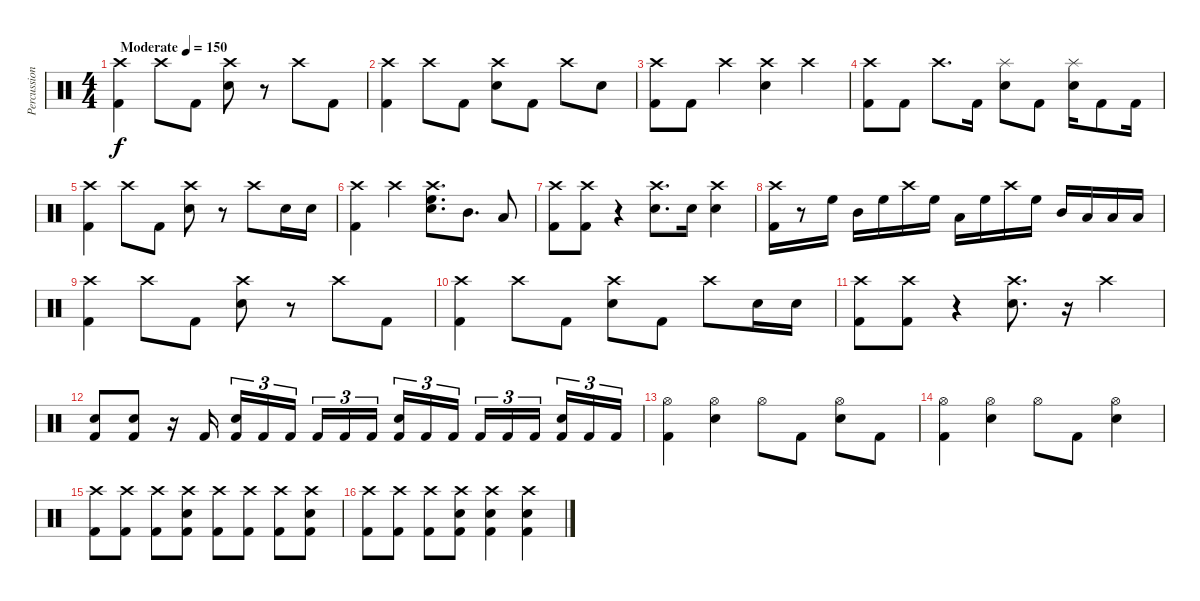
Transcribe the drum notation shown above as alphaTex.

\track ("Percussion" "Percussion") {instrument percussion}
\staff {score}
\articulation defaults
\ts (4 4)
\tempo (150 "Moderate")
\clef neutral
\ks c
("Crash high (hit)" "Kick (hit) 2").4{dy f} "Crash high (hit)".8 "Kick (hit) 2".8 ("Crash high (hit)" "Snare (hit) 2").8 r.8 "Crash high (hit)".8 "Kick (hit) 2".8 |
("Crash high (hit)" "Kick (hit) 2").4 "Crash high (hit)".8 "Kick (hit) 2".8 ("Crash high (hit)" "Snare (hit) 2").8 "Kick (hit) 2".8 "Crash high (hit)".8 "Snare (hit) 2".8 |
("Crash high (hit)" "Kick (hit) 2").8 "Kick (hit) 2".8 "Crash high (hit)".4 ("Crash high (hit)" "Snare (hit) 2").4 "Crash high (hit)".4 |
("Crash high (hit)" "Kick (hit) 2").8 "Kick (hit) 2".8 "Crash high (hit)".8{d} "Kick (hit) 2".16 ("Splash (hit)" "Snare (hit) 2").8 "Kick (hit) 2".8 ("Splash (hit)" "Snare (hit) 2").16 "Kick (hit) 2".8 "Kick (hit) 2".16 |
("Crash high (hit)" "Kick (hit) 2").4 "Crash high (hit)".8 "Kick (hit) 2".8 ("Crash high (hit)" "Snare (hit) 2").8 r.8 "Crash high (hit)".8 "Snare (hit) 2".16 "Snare (hit) 2".16 |
("Crash high (hit)" "Kick (hit) 2").4 "Crash high (hit)".4 ("Crash high (hit)" "High Floor Tom (hit)" "Snare (hit) 2").8{d} "Mid Tom (hit)".8{d} "Low Tom (hit)".8 |
("Crash high (hit)" "Kick (hit) 2").8 ("Crash high (hit)" "Kick (hit) 2").8 r.4 ("Crash high (hit)" "Snare (hit) 2").8{d} "Snare (hit) 2".16 ("Crash high (hit)" "Snare (hit) 2").4 |
("Crash high (hit)" "Kick (hit) 2").16 r.8 "High Floor Tom (hit)".16 "Mid Tom (hit)".16 "High Floor Tom (hit)".16 "Crash high (hit)".16 "High Floor Tom (hit)".16 "Low Tom (hit)".16 "High Floor Tom (hit)".16 "Crash high (hit)".16 "High Floor Tom (hit)".16 "Mid Tom (hit)".16 "Low Tom (hit)".16 "Low Tom (hit)".16 "Low Tom (hit)".16 |
("Crash high (hit)" "Kick (hit) 2").4 "Crash high (hit)".8 "Kick (hit) 2".8 ("Crash high (hit)" "Snare (hit) 2").8 r.8 "Crash high (hit)".8 "Kick (hit) 2".8 |
("Crash high (hit)" "Kick (hit) 2").4 "Crash high (hit)".8 "Kick (hit) 2".8 ("Crash high (hit)" "Snare (hit) 2").8 "Kick (hit) 2".8 "Crash high (hit)".8 "Snare (hit) 2".16 "Snare (hit) 2".16 |
("Crash high (hit)" "Kick (hit) 2").8 ("Crash high (hit)" "Kick (hit) 2").8 r.4 ("Crash high (hit)" "Snare (hit) 2").8{d} r.16 "Crash high (hit)".4 |
("Snare (hit) 2" "Kick (hit) 2").8 ("Snare (hit) 2" "Kick (hit) 2").8 r.16 "Kick (hit) 2".16{beam splitsecondary} ("Snare (hit) 2" "Kick (hit) 2").16{tu (3 2)} "Kick (hit) 2".16{tu (3 2)} "Kick (hit) 2".16{tu (3 2)} "Kick (hit) 2".16{tu (3 2)} "Kick (hit) 2".16{tu (3 2)} "Kick (hit) 2".16{tu (3 2) beam splitsecondary} ("Snare (hit) 2" "Kick (hit) 2").16{tu (3 2)} "Kick (hit) 2".16{tu (3 2)} "Kick (hit) 2".16{tu (3 2)} "Kick (hit) 2".16{tu (3 2)} "Kick (hit) 2".16{tu (3 2)} "Kick (hit) 2".16{tu (3 2) beam splitsecondary} ("Snare (hit) 2" "Kick (hit) 2").16{tu (3 2)} "Kick (hit) 2".16{tu (3 2)} "Kick (hit) 2".16{tu (3 2)} |
("Hi-Hat (open)" "Kick (hit) 2").4 ("Hi-Hat (open)" "Snare (hit) 2").4 "Hi-Hat (open)".8 "Kick (hit) 2".8 ("Hi-Hat (open)" "Snare (hit) 2").8 "Kick (hit) 2".8 |
("Hi-Hat (open)" "Kick (hit) 2").4 ("Hi-Hat (open)" "Snare (hit) 2").4 "Hi-Hat (open)".8 "Kick (hit) 2".8 ("Hi-Hat (open)" "Snare (hit) 2").4 |
("Crash high (hit)" "Kick (hit) 2").8 ("Crash high (hit)" "Kick (hit) 2").8 ("Crash high (hit)" "Kick (hit) 2").8 ("Crash high (hit)" "Snare (hit) 2" "Kick (hit) 2").8 ("Crash high (hit)" "Kick (hit) 2").8 ("Crash high (hit)" "Kick (hit) 2").8 ("Crash high (hit)" "Kick (hit) 2").8 ("Crash high (hit)" "Snare (hit) 2" "Kick (hit) 2").8 |
("Crash high (hit)" "Kick (hit) 2").8 ("Crash high (hit)" "Kick (hit) 2").8 ("Crash high (hit)" "Kick (hit) 2").8 ("Crash high (hit)" "Snare (hit) 2" "Kick (hit) 2").8 ("Crash high (hit)" "Snare (hit) 2" "Kick (hit) 2").4 ("Crash high (hit)" "Snare (hit) 2" "Kick (hit) 2").4
